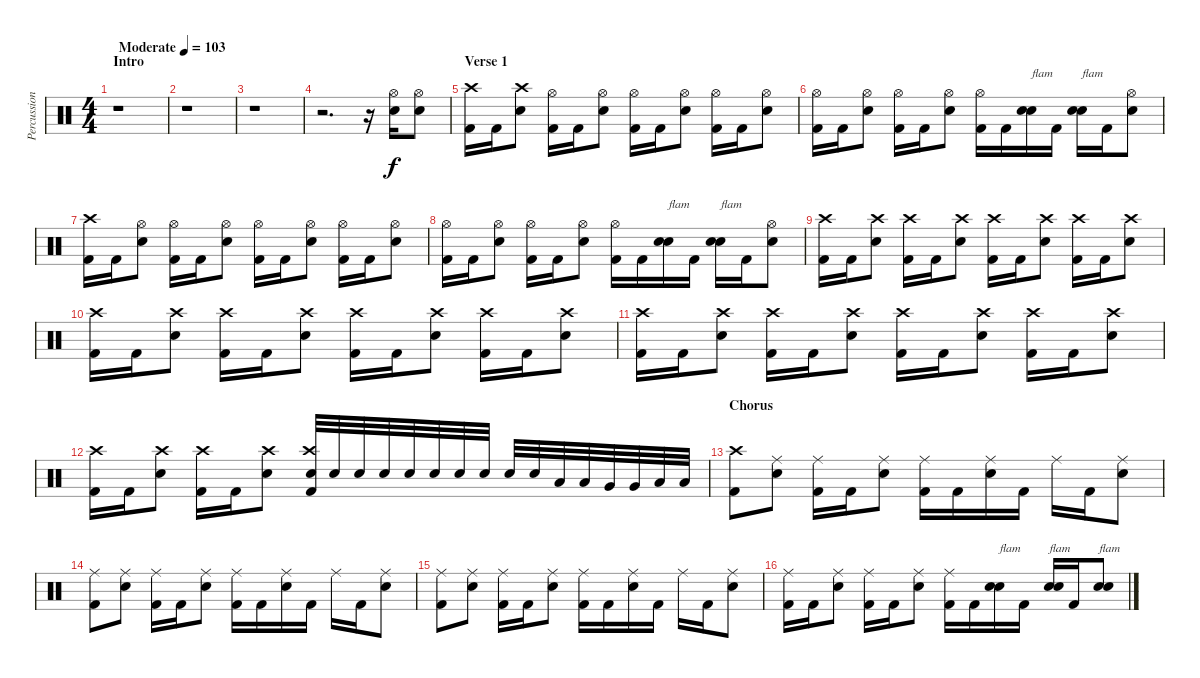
\track ("Percussion - Brandon Barnes" "Percussion") {instrument percussion}
\staff {score}
\articulation defaults
\ts (4 4)
\section ("" "Intro")
\tempo (103 "Moderate")
\clef neutral
\ks c
r.1{dy f} |
r.1 |
r.1 |
r.2{d} r.16 ("Hi-Hat (open)" "Electric Snare (hit)").16 ("Hi-Hat (open)" "Electric Snare (hit)").8 |
\section ("" "Verse 1")
("Crash high (hit)" "Kick (hit) 2").16 "Kick (hit) 2".16 ("Crash high (hit)" "Electric Snare (hit)").8 ("Hi-Hat (open)" "Kick (hit) 2").16 "Kick (hit) 2".16 ("Hi-Hat (open)" "Electric Snare (hit)").8 ("Hi-Hat (open)" "Kick (hit) 2").16 "Kick (hit) 2".16 ("Hi-Hat (open)" "Electric Snare (hit)").8 ("Hi-Hat (open)" "Kick (hit) 2").16 "Kick (hit) 2".16 ("Hi-Hat (open)" "Electric Snare (hit)").8 |
("Hi-Hat (open)" "Kick (hit) 2").16 "Kick (hit) 2".16 ("Hi-Hat (open)" "Electric Snare (hit)").8 ("Hi-Hat (open)" "Kick (hit) 2").16 "Kick (hit) 2".16 ("Hi-Hat (open)" "Electric Snare (hit)").8 ("Hi-Hat (open)" "Kick (hit) 2").16 "Kick (hit) 2".16 ("Electric Snare (hit)" "Electric Snare (hit)").16{bd 30 txt "flam"} "Kick (hit) 2".16 ("Electric Snare (hit)" "Electric Snare (hit)").16{bd 30 txt "flam"} "Kick (hit) 2".16 ("Hi-Hat (open)" "Electric Snare (hit)").8 |
("Crash high (hit)" "Kick (hit) 2").16 "Kick (hit) 2".16 ("Hi-Hat (open)" "Electric Snare (hit)").8 ("Hi-Hat (open)" "Kick (hit) 2").16 "Kick (hit) 2".16 ("Hi-Hat (open)" "Electric Snare (hit)").8 ("Hi-Hat (open)" "Kick (hit) 2").16 "Kick (hit) 2".16 ("Hi-Hat (open)" "Electric Snare (hit)").8 ("Hi-Hat (open)" "Kick (hit) 2").16 "Kick (hit) 2".16 ("Hi-Hat (open)" "Electric Snare (hit)").8 |
("Hi-Hat (open)" "Kick (hit) 2").16 "Kick (hit) 2".16 ("Hi-Hat (open)" "Electric Snare (hit)").8 ("Hi-Hat (open)" "Kick (hit) 2").16 "Kick (hit) 2".16 ("Hi-Hat (open)" "Electric Snare (hit)").8 ("Hi-Hat (open)" "Kick (hit) 2").16 "Kick (hit) 2".16 ("Electric Snare (hit)" "Electric Snare (hit)").16{bd 30 txt "flam"} "Kick (hit) 2".16 ("Electric Snare (hit)" "Electric Snare (hit)").16{bd 30 txt "flam"} "Kick (hit) 2".16 ("Hi-Hat (open)" "Electric Snare (hit)").8 |
("Crash high (hit)" "Kick (hit) 2").16 "Kick (hit) 2".16 ("Crash high (hit)" "Electric Snare (hit)").8 ("Crash high (hit)" "Kick (hit) 2").16 "Kick (hit) 2".16 ("Crash high (hit)" "Electric Snare (hit)").8 ("Crash high (hit)" "Kick (hit) 2").16 "Kick (hit) 2".16 ("Crash high (hit)" "Electric Snare (hit)").8 ("Crash high (hit)" "Kick (hit) 2").16 "Kick (hit) 2".16 ("Crash high (hit)" "Electric Snare (hit)").8 |
("Crash high (hit)" "Kick (hit) 2").16 "Kick (hit) 2".16 ("Crash high (hit)" "Electric Snare (hit)").8 ("Crash high (hit)" "Kick (hit) 2").16 "Kick (hit) 2".16 ("Crash high (hit)" "Electric Snare (hit)").8 ("Crash high (hit)" "Kick (hit) 2").16 "Kick (hit) 2".16 ("Crash high (hit)" "Electric Snare (hit)").8 ("Crash high (hit)" "Kick (hit) 2").16 "Kick (hit) 2".16 ("Crash high (hit)" "Electric Snare (hit)").8 |
("Crash high (hit)" "Kick (hit) 2").16 "Kick (hit) 2".16 ("Crash high (hit)" "Electric Snare (hit)").8 ("Crash high (hit)" "Kick (hit) 2").16 "Kick (hit) 2".16 ("Crash high (hit)" "Electric Snare (hit)").8 ("Crash high (hit)" "Kick (hit) 2").16 "Kick (hit) 2".16 ("Crash high (hit)" "Electric Snare (hit)").8 ("Crash high (hit)" "Kick (hit) 2").16 "Kick (hit) 2".16 ("Crash high (hit)" "Electric Snare (hit)").8 |
("Crash high (hit)" "Kick (hit) 2").16 "Kick (hit) 2".16 ("Crash high (hit)" "Electric Snare (hit)").8 ("Crash high (hit)" "Kick (hit) 2").16 "Kick (hit) 2".16 ("Crash high (hit)" "Electric Snare (hit)").8 ("Crash high (hit)" "Electric Snare (hit)" "Kick (hit) 2").32 "Electric Snare (hit)".32 "Electric Snare (hit)".32 "Electric Snare (hit)".32 "Electric Snare (hit)".32 "Electric Snare (hit)".32 "Electric Snare (hit)".32 "Electric Snare (hit)".32 "Electric Snare (hit)".32 "Electric Snare (hit)".32 "Low Tom (hit)".32 "Low Tom (hit)".32 "Very Low Tom (hit)".32 "Very Low Tom (hit)".32 "Low Floor Tom (hit)".32 "Low Floor Tom (hit)".32 |
\section ("" "Chorus")
("Crash high (hit)" "Kick (hit) 2").8 ("Ride (middle)" "Electric Snare (hit)").8 ("Ride (middle)" "Kick (hit) 2").16 "Kick (hit) 2".16 ("Ride (middle)" "Electric Snare (hit)").8 ("Ride (middle)" "Kick (hit) 2").16 "Kick (hit) 2".16 ("Ride (middle)" "Electric Snare (hit)").16 "Kick (hit) 2".16 "Ride (middle)".16 "Kick (hit) 2".16 ("Ride (middle)" "Electric Snare (hit)").8 |
("Ride (middle)" "Kick (hit) 2").8 ("Ride (middle)" "Electric Snare (hit)").8 ("Ride (middle)" "Kick (hit) 2").16 "Kick (hit) 2".16 ("Ride (middle)" "Electric Snare (hit)").8 ("Ride (middle)" "Kick (hit) 2").16 "Kick (hit) 2".16 ("Ride (middle)" "Electric Snare (hit)").16 "Kick (hit) 2".16 "Ride (middle)".16 "Kick (hit) 2".16 ("Ride (middle)" "Electric Snare (hit)").8 |
("Ride (middle)" "Kick (hit) 2").8 ("Ride (middle)" "Electric Snare (hit)").8 ("Ride (middle)" "Kick (hit) 2").16 "Kick (hit) 2".16 ("Ride (middle)" "Electric Snare (hit)").8 ("Ride (middle)" "Kick (hit) 2").16 "Kick (hit) 2".16 ("Ride (middle)" "Electric Snare (hit)").16 "Kick (hit) 2".16 "Ride (middle)".16 "Kick (hit) 2".16 ("Ride (middle)" "Electric Snare (hit)").8 |
("Ride (middle)" "Kick (hit) 2").16 "Kick (hit) 2".16 ("Ride (middle)" "Electric Snare (hit)").8 ("Ride (middle)" "Kick (hit) 2").16 "Kick (hit) 2".16 ("Ride (middle)" "Electric Snare (hit)").8 ("Ride (middle)" "Kick (hit) 2").16 "Kick (hit) 2".16 ("Electric Snare (hit)" "Electric Snare (hit)").16{bd 30 txt "flam"} "Kick (hit) 2".16 ("Electric Snare (hit)" "Electric Snare (hit)").16{bd 30 txt "flam"} "Kick (hit) 2".16 ("Electric Snare (hit)" "Electric Snare (hit)").8{bd 30 txt "flam"}
